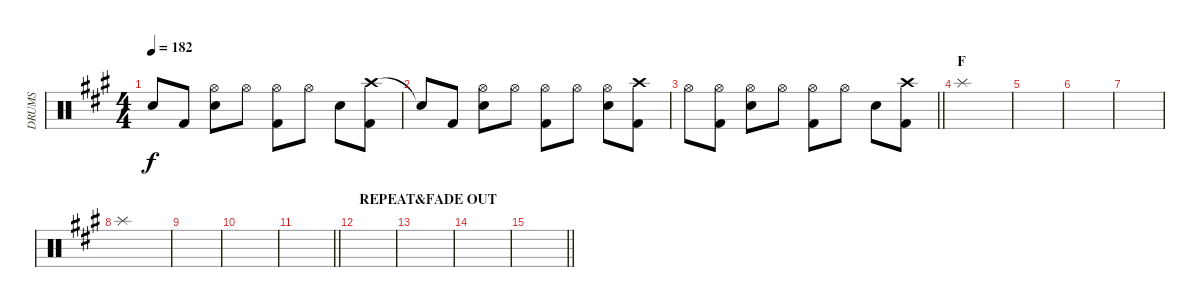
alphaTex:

\track ("DRUMS" "DRUMS") {instrument percussion}
\staff {score}
\articulation defaults
\ts (4 4)
\tempo 182
\clef neutral
\ks a "Snare (hit)"{t}.8{dy f} "Kick (hit) 2".8
("Hi-Hat (open)" "Snare (hit) 2").8 "Hi-Hat (open)".8 ("Hi-Hat (open)" "Kick (hit) 2").8 "Hi-Hat (open)".8 "Snare (hit) 2".8 ("Crash high (hit)" "Kick (hit) 2").8 |
"Snare (hit)"{t}.8 "Kick (hit) 2".8 ("Hi-Hat (open)" "Snare (hit) 2").8 "Hi-Hat (open)".8 ("Hi-Hat (open)" "Kick (hit) 2").8 "Hi-Hat (open)".8 ("Hi-Hat (open)" "Snare (hit) 2").8 ("Crash high (hit)" "Kick (hit) 2").8 |
\barLineRight lightlight "Hi-Hat (open)".8
("Hi-Hat (open)" "Kick (hit) 2").8 ("Hi-Hat (open)" "Snare (hit) 2").8 "Hi-Hat (open)".8 ("Hi-Hat (open)" "Kick (hit) 2").8 "Hi-Hat (open)".8 "Snare (hit) 2".8 ("Crash high (hit)" "Kick (hit) 2").8 |
\section ("" "F")
"Splash (hit)".1 |
|
|
|
"Splash (hit)".1 |
|
|
\barLineRight lightlight
|
\section ("" "REPEAT&FADE OUT")
|
|
|
\barLineRight lightlight
